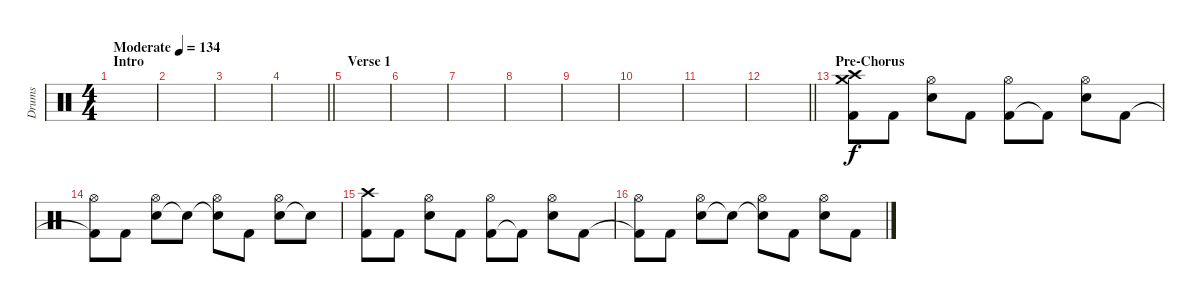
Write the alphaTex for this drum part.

\track ("Drums" "Drums") {instrument percussion}
\staff {score}
\articulation defaults
\ts (4 4)
\section ("" "Intro")
\tempo (134 "Moderate")
\clef neutral
\ks c
|
|
|
\barLineRight lightlight
|
\section ("" "Verse 1")
|
|
|
|
|
|
|
\barLineRight lightlight
|
\section ("" "Pre-Chorus")
("Kick (hit) 2" "Crash medium (hit)" "Crash high (hit)").8 "Kick (hit) 2".8 ("Electric Snare (hit)" "Hi-Hat (open)").8 "Kick (hit) 2".8 ("Kick (hit) 2" "Hi-Hat (open)").8 "Kick (hit) 2"{t}.8 ("Electric Snare (hit)" "Hi-Hat (open)").8 "Kick (hit) 2".8 |
("Kick (hit) 2"{t} "Hi-Hat (open)").8 "Kick (hit) 2".8 ("Electric Snare (hit)" "Hi-Hat (open)").8 "Electric Snare (hit)"{t}.8 ("Snare (hit)"{t} "Hi-Hat (open)").8 "Kick (hit) 2".8 ("Electric Snare (hit)" "Hi-Hat (open)").8 "Electric Snare (hit)"{t}.8 |
("Kick (hit) 2" "Crash high (hit)").8 "Kick (hit) 2".8 ("Electric Snare (hit)" "Hi-Hat (open)").8 "Kick (hit) 2".8 ("Kick (hit) 2" "Hi-Hat (open)").8 "Kick (hit) 2"{t}.8 ("Electric Snare (hit)" "Hi-Hat (open)").8 "Kick (hit) 2".8 |
("Kick (hit) 2"{t} "Hi-Hat (open)").8 "Kick (hit) 2".8 ("Electric Snare (hit)" "Hi-Hat (open)").8 "Electric Snare (hit)"{t}.8 ("Snare (hit)"{t} "Hi-Hat (open)").8 "Kick (hit) 2".8 ("Electric Snare (hit)" "Hi-Hat (open)").8 "Kick (hit) 2".8
